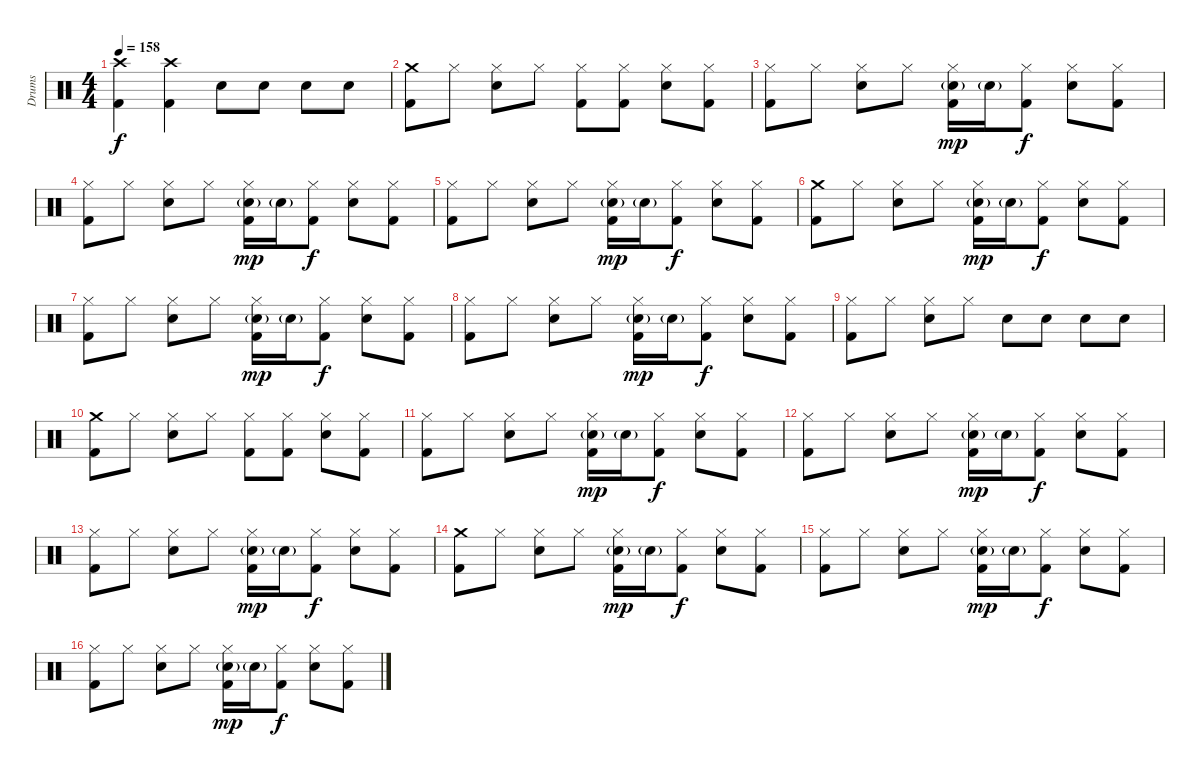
\track ("Drums" "Drums") {instrument percussion}
\staff {score}
\articulation defaults
\ts (4 4)
\tempo 158
\clef neutral
\ks c
("Crash high (hit)" "Kick (hit) 2").4{dy f} ("Crash high (hit)" "Kick (hit) 2").4 "Electric Snare (hit)".8 "Electric Snare (hit)".8 "Electric Snare (hit)".8 "Electric Snare (hit)".8 |
("Crash medium (hit)" "Kick (hit) 2").8 "Hi-Hat (closed)".8 ("Hi-Hat (closed)" "Electric Snare (hit)").8 "Hi-Hat (closed)".8 ("Hi-Hat (closed)" "Kick (hit) 2").8 ("Hi-Hat (closed)" "Kick (hit) 2").8 ("Hi-Hat (closed)" "Electric Snare (hit)").8 ("Hi-Hat (closed)" "Kick (hit) 2").8 |
("Hi-Hat (closed)" "Kick (hit) 2").8 "Hi-Hat (closed)".8 ("Hi-Hat (closed)" "Electric Snare (hit)").8 "Hi-Hat (closed)".8 ("Hi-Hat (closed)" "Electric Snare (hit)"{g} "Kick (hit) 2").16{dy mp} "Electric Snare (hit)"{g}.16 ("Hi-Hat (closed)" "Kick (hit) 2").8{dy f} ("Hi-Hat (closed)" "Electric Snare (hit)").8 ("Hi-Hat (closed)" "Kick (hit) 2").8 |
("Hi-Hat (closed)" "Kick (hit) 2").8 "Hi-Hat (closed)".8 ("Hi-Hat (closed)" "Electric Snare (hit)").8 "Hi-Hat (closed)".8 ("Hi-Hat (closed)" "Electric Snare (hit)"{g} "Kick (hit) 2").16{dy mp} "Electric Snare (hit)"{g}.16 ("Hi-Hat (closed)" "Kick (hit) 2").8{dy f} ("Hi-Hat (closed)" "Electric Snare (hit)").8 ("Hi-Hat (closed)" "Kick (hit) 2").8 |
("Hi-Hat (closed)" "Kick (hit) 2").8 "Hi-Hat (closed)".8 ("Hi-Hat (closed)" "Electric Snare (hit)").8 "Hi-Hat (closed)".8 ("Hi-Hat (closed)" "Electric Snare (hit)"{g} "Kick (hit) 2").16{dy mp} "Electric Snare (hit)"{g}.16 ("Hi-Hat (closed)" "Kick (hit) 2").8{dy f} ("Hi-Hat (closed)" "Electric Snare (hit)").8 ("Hi-Hat (closed)" "Kick (hit) 2").8 |
("Crash medium (hit)" "Kick (hit) 2").8 "Hi-Hat (closed)".8 ("Hi-Hat (closed)" "Electric Snare (hit)").8 "Hi-Hat (closed)".8 ("Hi-Hat (closed)" "Electric Snare (hit)"{g} "Kick (hit) 2").16{dy mp} "Electric Snare (hit)"{g}.16 ("Hi-Hat (closed)" "Kick (hit) 2").8{dy f} ("Hi-Hat (closed)" "Electric Snare (hit)").8 ("Hi-Hat (closed)" "Kick (hit) 2").8 |
("Hi-Hat (closed)" "Kick (hit) 2").8 "Hi-Hat (closed)".8 ("Hi-Hat (closed)" "Electric Snare (hit)").8 "Hi-Hat (closed)".8 ("Hi-Hat (closed)" "Electric Snare (hit)"{g} "Kick (hit) 2").16{dy mp} "Electric Snare (hit)"{g}.16 ("Hi-Hat (closed)" "Kick (hit) 2").8{dy f} ("Hi-Hat (closed)" "Electric Snare (hit)").8 ("Hi-Hat (closed)" "Kick (hit) 2").8 |
("Hi-Hat (closed)" "Kick (hit) 2").8 "Hi-Hat (closed)".8 ("Hi-Hat (closed)" "Electric Snare (hit)").8 "Hi-Hat (closed)".8 ("Hi-Hat (closed)" "Electric Snare (hit)"{g} "Kick (hit) 2").16{dy mp} "Electric Snare (hit)"{g}.16 ("Hi-Hat (closed)" "Kick (hit) 2").8{dy f} ("Hi-Hat (closed)" "Electric Snare (hit)").8 ("Hi-Hat (closed)" "Kick (hit) 2").8 |
("Hi-Hat (closed)" "Kick (hit) 2").8 "Hi-Hat (closed)".8 ("Hi-Hat (closed)" "Electric Snare (hit)").8 "Hi-Hat (closed)".8 "Electric Snare (hit)".8 "Electric Snare (hit)".8 "Electric Snare (hit)".8 "Electric Snare (hit)".8 |
("Crash medium (hit)" "Kick (hit) 2").8 "Hi-Hat (closed)".8 ("Hi-Hat (closed)" "Electric Snare (hit)").8 "Hi-Hat (closed)".8 ("Hi-Hat (closed)" "Kick (hit) 2").8 ("Hi-Hat (closed)" "Kick (hit) 2").8 ("Hi-Hat (closed)" "Electric Snare (hit)").8 ("Hi-Hat (closed)" "Kick (hit) 2").8 |
("Hi-Hat (closed)" "Kick (hit) 2").8 "Hi-Hat (closed)".8 ("Hi-Hat (closed)" "Electric Snare (hit)").8 "Hi-Hat (closed)".8 ("Hi-Hat (closed)" "Electric Snare (hit)"{g} "Kick (hit) 2").16{dy mp} "Electric Snare (hit)"{g}.16 ("Hi-Hat (closed)" "Kick (hit) 2").8{dy f} ("Hi-Hat (closed)" "Electric Snare (hit)").8 ("Hi-Hat (closed)" "Kick (hit) 2").8 |
("Hi-Hat (closed)" "Kick (hit) 2").8 "Hi-Hat (closed)".8 ("Hi-Hat (closed)" "Electric Snare (hit)").8 "Hi-Hat (closed)".8 ("Hi-Hat (closed)" "Electric Snare (hit)"{g} "Kick (hit) 2").16{dy mp} "Electric Snare (hit)"{g}.16 ("Hi-Hat (closed)" "Kick (hit) 2").8{dy f} ("Hi-Hat (closed)" "Electric Snare (hit)").8 ("Hi-Hat (closed)" "Kick (hit) 2").8 |
("Hi-Hat (closed)" "Kick (hit) 2").8 "Hi-Hat (closed)".8 ("Hi-Hat (closed)" "Electric Snare (hit)").8 "Hi-Hat (closed)".8 ("Hi-Hat (closed)" "Electric Snare (hit)"{g} "Kick (hit) 2").16{dy mp} "Electric Snare (hit)"{g}.16 ("Hi-Hat (closed)" "Kick (hit) 2").8{dy f} ("Hi-Hat (closed)" "Electric Snare (hit)").8 ("Hi-Hat (closed)" "Kick (hit) 2").8 |
("Crash medium (hit)" "Kick (hit) 2").8 "Hi-Hat (closed)".8 ("Hi-Hat (closed)" "Electric Snare (hit)").8 "Hi-Hat (closed)".8 ("Hi-Hat (closed)" "Electric Snare (hit)"{g} "Kick (hit) 2").16{dy mp} "Electric Snare (hit)"{g}.16 ("Hi-Hat (closed)" "Kick (hit) 2").8{dy f} ("Hi-Hat (closed)" "Electric Snare (hit)").8 ("Hi-Hat (closed)" "Kick (hit) 2").8 |
("Hi-Hat (closed)" "Kick (hit) 2").8 "Hi-Hat (closed)".8 ("Hi-Hat (closed)" "Electric Snare (hit)").8 "Hi-Hat (closed)".8 ("Hi-Hat (closed)" "Electric Snare (hit)"{g} "Kick (hit) 2").16{dy mp} "Electric Snare (hit)"{g}.16 ("Hi-Hat (closed)" "Kick (hit) 2").8{dy f} ("Hi-Hat (closed)" "Electric Snare (hit)").8 ("Hi-Hat (closed)" "Kick (hit) 2").8 |
("Hi-Hat (closed)" "Kick (hit) 2").8 "Hi-Hat (closed)".8 ("Hi-Hat (closed)" "Electric Snare (hit)").8 "Hi-Hat (closed)".8 ("Hi-Hat (closed)" "Electric Snare (hit)"{g} "Kick (hit) 2").16{dy mp} "Electric Snare (hit)"{g}.16 ("Hi-Hat (closed)" "Kick (hit) 2").8{dy f} ("Hi-Hat (closed)" "Electric Snare (hit)").8 ("Hi-Hat (closed)" "Kick (hit) 2").8
